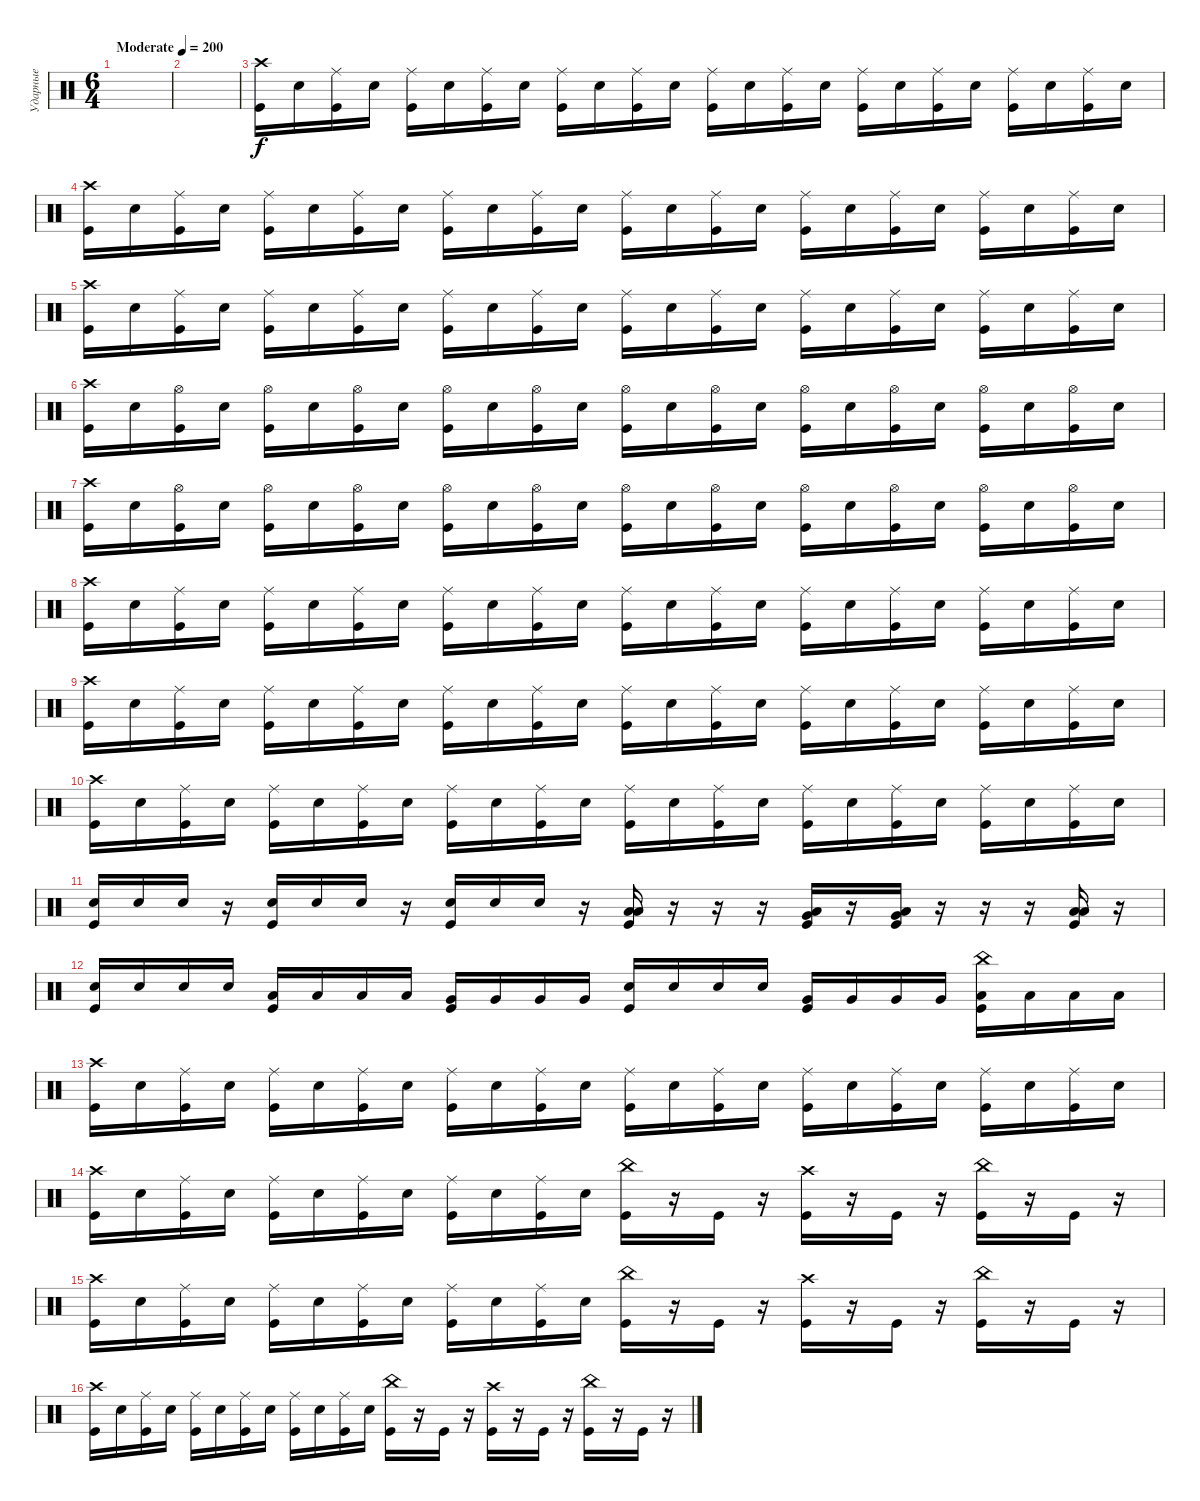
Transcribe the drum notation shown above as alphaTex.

\track ("Ударные" "Ударные") {instrument percussion}
\staff {score}
\articulation defaults
\ts (6 4)
\tempo (200 "Moderate")
\clef neutral
\ks c
|
|
("Crash high (hit)" "Kick (hit)").16 "Snare (hit) 2".16 ("Ride (middle)" "Kick (hit)").16 "Snare (hit) 2".16 ("Ride (middle)" "Kick (hit)").16 "Snare (hit) 2".16 ("Ride (middle)" "Kick (hit)").16 "Snare (hit) 2".16 ("Ride (middle)" "Kick (hit)").16 "Snare (hit) 2".16 ("Ride (middle)" "Kick (hit)").16 "Snare (hit) 2".16 ("Ride (middle)" "Kick (hit)").16 "Snare (hit) 2".16 ("Ride (middle)" "Kick (hit)").16 "Snare (hit) 2".16 ("Ride (middle)" "Kick (hit)").16 "Snare (hit) 2".16 ("Ride (middle)" "Kick (hit)").16 "Snare (hit) 2".16 ("Ride (middle)" "Kick (hit)").16 "Snare (hit) 2".16 ("Ride (middle)" "Kick (hit)").16 "Snare (hit) 2".16 |
("Crash high (hit)" "Kick (hit)").16 "Snare (hit) 2".16 ("Ride (middle)" "Kick (hit)").16 "Snare (hit) 2".16 ("Ride (middle)" "Kick (hit)").16 "Snare (hit) 2".16 ("Ride (middle)" "Kick (hit)").16 "Snare (hit) 2".16 ("Ride (middle)" "Kick (hit)").16 "Snare (hit) 2".16 ("Ride (middle)" "Kick (hit)").16 "Snare (hit) 2".16 ("Ride (middle)" "Kick (hit)").16 "Snare (hit) 2".16 ("Ride (middle)" "Kick (hit)").16 "Snare (hit) 2".16 ("Ride (middle)" "Kick (hit)").16 "Snare (hit) 2".16 ("Ride (middle)" "Kick (hit)").16 "Snare (hit) 2".16 ("Ride (middle)" "Kick (hit)").16 "Snare (hit) 2".16 ("Ride (middle)" "Kick (hit)").16 "Snare (hit) 2".16 |
("Crash high (hit)" "Kick (hit)").16 "Snare (hit) 2".16 ("Ride (middle)" "Kick (hit)").16 "Snare (hit) 2".16 ("Ride (middle)" "Kick (hit)").16 "Snare (hit) 2".16 ("Ride (middle)" "Kick (hit)").16 "Snare (hit) 2".16 ("Ride (middle)" "Kick (hit)").16 "Snare (hit) 2".16 ("Ride (middle)" "Kick (hit)").16 "Snare (hit) 2".16 ("Ride (middle)" "Kick (hit)").16 "Snare (hit) 2".16 ("Ride (middle)" "Kick (hit)").16 "Snare (hit) 2".16 ("Ride (middle)" "Kick (hit)").16 "Snare (hit) 2".16 ("Ride (middle)" "Kick (hit)").16 "Snare (hit) 2".16 ("Ride (middle)" "Kick (hit)").16 "Snare (hit) 2".16 ("Ride (middle)" "Kick (hit)").16 "Snare (hit) 2".16 |
("Crash high (hit)" "Kick (hit)").16 "Snare (hit) 2".16 ("Hi-Hat (open)" "Kick (hit)").16 "Snare (hit) 2".16 ("Hi-Hat (open)" "Kick (hit)").16 "Snare (hit) 2".16 ("Hi-Hat (open)" "Kick (hit)").16 "Snare (hit) 2".16 ("Hi-Hat (open)" "Kick (hit)").16 "Snare (hit) 2".16 ("Hi-Hat (open)" "Kick (hit)").16 "Snare (hit) 2".16 ("Hi-Hat (open)" "Kick (hit)").16 "Snare (hit) 2".16 ("Hi-Hat (open)" "Kick (hit)").16 "Snare (hit) 2".16 ("Hi-Hat (open)" "Kick (hit)").16 "Snare (hit) 2".16 ("Hi-Hat (open)" "Kick (hit)").16 "Snare (hit) 2".16 ("Hi-Hat (open)" "Kick (hit)").16 "Snare (hit) 2".16 ("Hi-Hat (open)" "Kick (hit)").16 "Snare (hit) 2".16 |
("Crash high (hit)" "Kick (hit)").16 "Snare (hit) 2".16 ("Hi-Hat (open)" "Kick (hit)").16 "Snare (hit) 2".16 ("Hi-Hat (open)" "Kick (hit)").16 "Snare (hit) 2".16 ("Hi-Hat (open)" "Kick (hit)").16 "Snare (hit) 2".16 ("Hi-Hat (open)" "Kick (hit)").16 "Snare (hit) 2".16 ("Hi-Hat (open)" "Kick (hit)").16 "Snare (hit) 2".16 ("Hi-Hat (open)" "Kick (hit)").16 "Snare (hit) 2".16 ("Hi-Hat (open)" "Kick (hit)").16 "Snare (hit) 2".16 ("Hi-Hat (open)" "Kick (hit)").16 "Snare (hit) 2".16 ("Hi-Hat (open)" "Kick (hit)").16 "Snare (hit) 2".16 ("Hi-Hat (open)" "Kick (hit)").16 "Snare (hit) 2".16 ("Hi-Hat (open)" "Kick (hit)").16 "Snare (hit) 2".16 |
("Crash high (hit)" "Kick (hit)").16 "Snare (hit) 2".16 ("Ride (middle)" "Kick (hit)").16 "Snare (hit) 2".16 ("Ride (middle)" "Kick (hit)").16 "Snare (hit) 2".16 ("Ride (middle)" "Kick (hit)").16 "Snare (hit) 2".16 ("Ride (middle)" "Kick (hit)").16 "Snare (hit) 2".16 ("Ride (middle)" "Kick (hit)").16 "Snare (hit) 2".16 ("Ride (middle)" "Kick (hit)").16 "Snare (hit) 2".16 ("Ride (middle)" "Kick (hit)").16 "Snare (hit) 2".16 ("Ride (middle)" "Kick (hit)").16 "Snare (hit) 2".16 ("Ride (middle)" "Kick (hit)").16 "Snare (hit) 2".16 ("Ride (middle)" "Kick (hit)").16 "Snare (hit) 2".16 ("Ride (middle)" "Kick (hit)").16 "Snare (hit) 2".16 |
("Crash high (hit)" "Kick (hit)").16 "Snare (hit) 2".16 ("Ride (middle)" "Kick (hit)").16 "Snare (hit) 2".16 ("Ride (middle)" "Kick (hit)").16 "Snare (hit) 2".16 ("Ride (middle)" "Kick (hit)").16 "Snare (hit) 2".16 ("Ride (middle)" "Kick (hit)").16 "Snare (hit) 2".16 ("Ride (middle)" "Kick (hit)").16 "Snare (hit) 2".16 ("Ride (middle)" "Kick (hit)").16 "Snare (hit) 2".16 ("Ride (middle)" "Kick (hit)").16 "Snare (hit) 2".16 ("Ride (middle)" "Kick (hit)").16 "Snare (hit) 2".16 ("Ride (middle)" "Kick (hit)").16 "Snare (hit) 2".16 ("Ride (middle)" "Kick (hit)").16 "Snare (hit) 2".16 ("Ride (middle)" "Kick (hit)").16 "Snare (hit) 2".16 |
("Crash high (hit)" "Kick (hit)").16 "Snare (hit) 2".16 ("Ride (middle)" "Kick (hit)").16 "Snare (hit) 2".16 ("Ride (middle)" "Kick (hit)").16 "Snare (hit) 2".16 ("Ride (middle)" "Kick (hit)").16 "Snare (hit) 2".16 ("Ride (middle)" "Kick (hit)").16 "Snare (hit) 2".16 ("Ride (middle)" "Kick (hit)").16 "Snare (hit) 2".16 ("Ride (middle)" "Kick (hit)").16 "Snare (hit) 2".16 ("Ride (middle)" "Kick (hit)").16 "Snare (hit) 2".16 ("Ride (middle)" "Kick (hit)").16 "Snare (hit) 2".16 ("Ride (middle)" "Kick (hit)").16 "Snare (hit) 2".16 ("Ride (middle)" "Kick (hit)").16 "Snare (hit) 2".16 ("Ride (middle)" "Kick (hit)").16 "Snare (hit) 2".16 |
("Snare (hit) 2" "Kick (hit)").16 "Snare (hit) 2".16 "Snare (hit) 2".16 r.16 ("Snare (hit) 2" "Kick (hit)").16 "Snare (hit) 2".16 "Snare (hit) 2".16 r.16 ("Snare (hit) 2" "Kick (hit)").16 "Snare (hit) 2".16 "Snare (hit) 2".16 r.16 ("Low Tom (hit)" "Low Floor Tom (hit)" "Kick (hit)").16 r.16 r.16 r.16 ("Very Low Tom (hit)" "Low Floor Tom (hit)" "Kick (hit)").16 r.16 ("Very Low Tom (hit)" "Low Floor Tom (hit)" "Kick (hit)").16 r.16 r.16 r.16 ("Low Floor Tom (hit)" "Low Floor Tom (hit)" "Kick (hit)").16 r.16 |
("Snare (hit) 2" "Kick (hit)").16 "Snare (hit) 2".16 "Snare (hit) 2".16 "Snare (hit) 2".16 ("Low Tom (hit)" "Kick (hit)").16 "Low Tom (hit)".16 "Low Tom (hit)".16 "Low Tom (hit)".16 ("Very Low Tom (hit)" "Kick (hit)").16 "Very Low Tom (hit)".16 "Very Low Tom (hit)".16 "Very Low Tom (hit)".16 ("Snare (hit) 2" "Kick (hit)").16 "Snare (hit) 2".16 "Snare (hit) 2".16 "Snare (hit) 2".16 ("Very Low Tom (hit)" "Kick (hit)").16 "Very Low Tom (hit)".16 "Very Low Tom (hit)".16 "Very Low Tom (hit)".16 ("China (hit)" "Low Floor Tom (hit)" "Kick (hit)").16 "Low Floor Tom (hit)".16 "Low Floor Tom (hit)".16 "Low Floor Tom (hit)".16 |
("Crash high (hit)" "Kick (hit)").16 "Snare (hit) 2".16 ("Ride (middle)" "Kick (hit)").16 "Snare (hit) 2".16 ("Ride (middle)" "Kick (hit)").16 "Snare (hit) 2".16 ("Ride (middle)" "Kick (hit)").16 "Snare (hit) 2".16 ("Ride (middle)" "Kick (hit)").16 "Snare (hit) 2".16 ("Ride (middle)" "Kick (hit)").16 "Snare (hit) 2".16 ("Ride (middle)" "Kick (hit)").16 "Snare (hit) 2".16 ("Ride (middle)" "Kick (hit)").16 "Snare (hit) 2".16 ("Ride (middle)" "Kick (hit)").16 "Snare (hit) 2".16 ("Ride (middle)" "Kick (hit)").16 "Snare (hit) 2".16 ("Ride (middle)" "Kick (hit)").16 "Snare (hit) 2".16 ("Ride (middle)" "Kick (hit)").16 "Snare (hit) 2".16 |
("Crash high (hit)" "Kick (hit)").16 "Snare (hit) 2".16 ("Ride (middle)" "Kick (hit)").16 "Snare (hit) 2".16 ("Ride (middle)" "Kick (hit)").16 "Snare (hit) 2".16 ("Ride (middle)" "Kick (hit)").16 "Snare (hit) 2".16 ("Ride (middle)" "Kick (hit)").16 "Snare (hit) 2".16 ("Ride (middle)" "Kick (hit)").16 "Snare (hit) 2".16 ("China (hit)" "Kick (hit)").16 r.16 "Kick (hit)".16 r.16 ("Crash high (hit)" "Kick (hit)").16 r.16 "Kick (hit)".16 r.16 ("China (hit)" "Kick (hit)").16 r.16 "Kick (hit)".16 r.16 |
("Crash high (hit)" "Kick (hit)").16 "Snare (hit) 2".16 ("Ride (middle)" "Kick (hit)").16 "Snare (hit) 2".16 ("Ride (middle)" "Kick (hit)").16 "Snare (hit) 2".16 ("Ride (middle)" "Kick (hit)").16 "Snare (hit) 2".16 ("Ride (middle)" "Kick (hit)").16 "Snare (hit) 2".16 ("Ride (middle)" "Kick (hit)").16 "Snare (hit) 2".16 ("China (hit)" "Kick (hit)").16 r.16 "Kick (hit)".16 r.16 ("Crash high (hit)" "Kick (hit)").16 r.16 "Kick (hit)".16 r.16 ("China (hit)" "Kick (hit)").16 r.16 "Kick (hit)".16 r.16 |
("Crash high (hit)" "Kick (hit)").16 "Snare (hit) 2".16 ("Ride (middle)" "Kick (hit)").16 "Snare (hit) 2".16 ("Ride (middle)" "Kick (hit)").16 "Snare (hit) 2".16 ("Ride (middle)" "Kick (hit)").16 "Snare (hit) 2".16 ("Ride (middle)" "Kick (hit)").16 "Snare (hit) 2".16 ("Ride (middle)" "Kick (hit)").16 "Snare (hit) 2".16 ("China (hit)" "Kick (hit)").16 r.16 "Kick (hit)".16 r.16 ("Crash high (hit)" "Kick (hit)").16 r.16 "Kick (hit)".16 r.16 ("China (hit)" "Kick (hit)").16 r.16 "Kick (hit)".16 r.16
